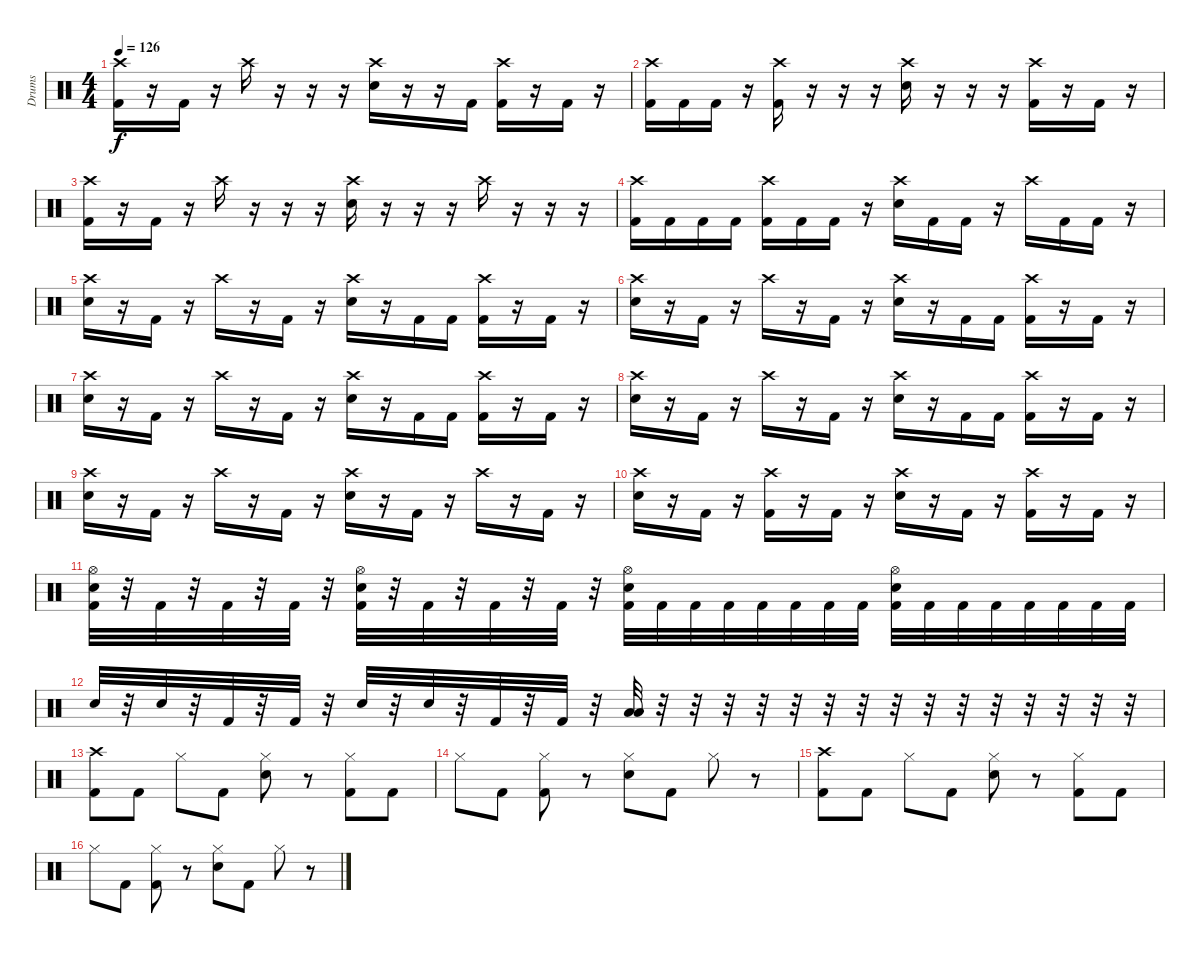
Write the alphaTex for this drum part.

\track ("Drums" "Drums") {instrument percussion}
\staff {score}
\articulation defaults
\ts (4 4)
\tempo 126
\clef neutral
\ks c
("Crash high (hit)" "Kick (hit) 2").16{dy f} r.16 "Kick (hit) 2".16 r.16 "Crash high (hit)".16 r.16 r.16 r.16 ("Crash high (hit)" "Electric Snare (hit)").16 r.16 r.16 "Kick (hit) 2".16 ("Crash high (hit)" "Kick (hit) 2").16 r.16 "Kick (hit) 2".16 r.16 |
("Crash high (hit)" "Kick (hit) 2").16 "Kick (hit) 2".16 "Kick (hit) 2".16 r.16 ("Crash high (hit)" "Kick (hit) 2").16 r.16 r.16 r.16 ("Crash high (hit)" "Electric Snare (hit)").16 r.16 r.16 r.16 ("Crash high (hit)" "Kick (hit) 2").16 r.16 "Kick (hit) 2".16 r.16 |
("Crash high (hit)" "Kick (hit) 2").16 r.16 "Kick (hit) 2".16 r.16 "Crash high (hit)".16 r.16 r.16 r.16 ("Crash high (hit)" "Electric Snare (hit)").16 r.16 r.16 r.16 "Crash high (hit)".16 r.16 r.16 r.16 |
("Crash high (hit)" "Kick (hit) 2").16 "Kick (hit) 2".16 "Kick (hit) 2".16 "Kick (hit) 2".16 ("Crash high (hit)" "Kick (hit) 2").16 "Kick (hit) 2".16 "Kick (hit) 2".16 r.16 ("Crash high (hit)" "Electric Snare (hit)").16 "Kick (hit) 2".16 "Kick (hit) 2".16 r.16 "Crash high (hit)".16 "Kick (hit) 2".16 "Kick (hit) 2".16 r.16 |
("Crash high (hit)" "Electric Snare (hit)").16 r.16 "Kick (hit) 2".16 r.16 "Crash high (hit)".16 r.16 "Kick (hit) 2".16 r.16 ("Crash high (hit)" "Electric Snare (hit)").16 r.16 "Kick (hit) 2".16 "Kick (hit) 2".16 ("Crash high (hit)" "Kick (hit) 2").16 r.16 "Kick (hit) 2".16 r.16 |
("Crash high (hit)" "Electric Snare (hit)").16 r.16 "Kick (hit) 2".16 r.16 "Crash high (hit)".16 r.16 "Kick (hit) 2".16 r.16 ("Crash high (hit)" "Electric Snare (hit)").16 r.16 "Kick (hit) 2".16 "Kick (hit) 2".16 ("Crash high (hit)" "Kick (hit) 2").16 r.16 "Kick (hit) 2".16 r.16 |
("Crash high (hit)" "Electric Snare (hit)").16 r.16 "Kick (hit) 2".16 r.16 "Crash high (hit)".16 r.16 "Kick (hit) 2".16 r.16 ("Crash high (hit)" "Electric Snare (hit)").16 r.16 "Kick (hit) 2".16 "Kick (hit) 2".16 ("Crash high (hit)" "Kick (hit) 2").16 r.16 "Kick (hit) 2".16 r.16 |
("Crash high (hit)" "Electric Snare (hit)").16 r.16 "Kick (hit) 2".16 r.16 "Crash high (hit)".16 r.16 "Kick (hit) 2".16 r.16 ("Crash high (hit)" "Electric Snare (hit)").16 r.16 "Kick (hit) 2".16 "Kick (hit) 2".16 ("Crash high (hit)" "Kick (hit) 2").16 r.16 "Kick (hit) 2".16 r.16 |
("Crash high (hit)" "Electric Snare (hit)").16 r.16 "Kick (hit) 2".16 r.16 "Crash high (hit)".16 r.16 "Kick (hit) 2".16 r.16 ("Crash high (hit)" "Electric Snare (hit)").16 r.16 "Kick (hit) 2".16 r.16 "Crash high (hit)".16 r.16 "Kick (hit) 2".16 r.16 |
("Crash high (hit)" "Electric Snare (hit)").16 r.16 "Kick (hit) 2".16 r.16 ("Crash high (hit)" "Kick (hit) 2").16 r.16 "Kick (hit) 2".16 r.16 ("Crash high (hit)" "Electric Snare (hit)").16 r.16 "Kick (hit) 2".16 r.16 ("Crash high (hit)" "Kick (hit) 2").16 r.16 "Kick (hit) 2".16 r.16 |
("Electric Snare (hit)" "Hi-Hat (open)" "Kick (hit) 2").32 r.32 "Kick (hit) 2".32 r.32 "Kick (hit) 2".32 r.32 "Kick (hit) 2".32 r.32 ("Electric Snare (hit)" "Hi-Hat (open)" "Kick (hit) 2").32 r.32 "Kick (hit) 2".32 r.32 "Kick (hit) 2".32 r.32 "Kick (hit) 2".32 r.32 ("Electric Snare (hit)" "Hi-Hat (open)" "Kick (hit) 2").32 "Kick (hit) 2".32 "Kick (hit) 2".32 "Kick (hit) 2".32 "Kick (hit) 2".32 "Kick (hit) 2".32 "Kick (hit) 2".32 "Kick (hit) 2".32 ("Electric Snare (hit)" "Hi-Hat (open)" "Kick (hit) 2").32 "Kick (hit) 2".32 "Kick (hit) 2".32 "Kick (hit) 2".32 "Kick (hit) 2".32 "Kick (hit) 2".32 "Kick (hit) 2".32 "Kick (hit) 2".32 |
"Electric Snare (hit)".32 r.32 "Electric Snare (hit)".32 r.32 "Kick (hit) 2".32 r.32 "Kick (hit) 2".32 r.32 "Electric Snare (hit)".32 r.32 "Electric Snare (hit)".32 r.32 "Kick (hit) 2".32 r.32 "Kick (hit) 2".32 r.32 ("Low Floor Tom (hit)" "Low Tom (hit)").32 r.32 r.32 r.32 r.32 r.32 r.32 r.32 r.32 r.32 r.32 r.32 r.32 r.32 r.32 r.32 |
("Crash high (hit)" "Kick (hit) 2").8 "Kick (hit) 2".8 "Hi-Hat (closed)".8 "Kick (hit) 2".8 ("Hi-Hat (closed)" "Electric Snare (hit)").8 r.8 ("Hi-Hat (closed)" "Kick (hit) 2").8 "Kick (hit) 2".8 |
"Hi-Hat (closed)".8 "Kick (hit) 2".8 ("Hi-Hat (closed)" "Kick (hit) 2").8 r.8 ("Hi-Hat (closed)" "Electric Snare (hit)").8 "Kick (hit) 2".8 "Hi-Hat (closed)".8 r.8 |
("Crash high (hit)" "Kick (hit) 2").8 "Kick (hit) 2".8 "Hi-Hat (closed)".8 "Kick (hit) 2".8 ("Hi-Hat (closed)" "Electric Snare (hit)").8 r.8 ("Hi-Hat (closed)" "Kick (hit) 2").8 "Kick (hit) 2".8 |
"Hi-Hat (closed)".8 "Kick (hit) 2".8 ("Hi-Hat (closed)" "Kick (hit) 2").8 r.8 ("Hi-Hat (closed)" "Electric Snare (hit)").8 "Kick (hit) 2".8 "Hi-Hat (closed)".8 r.8
